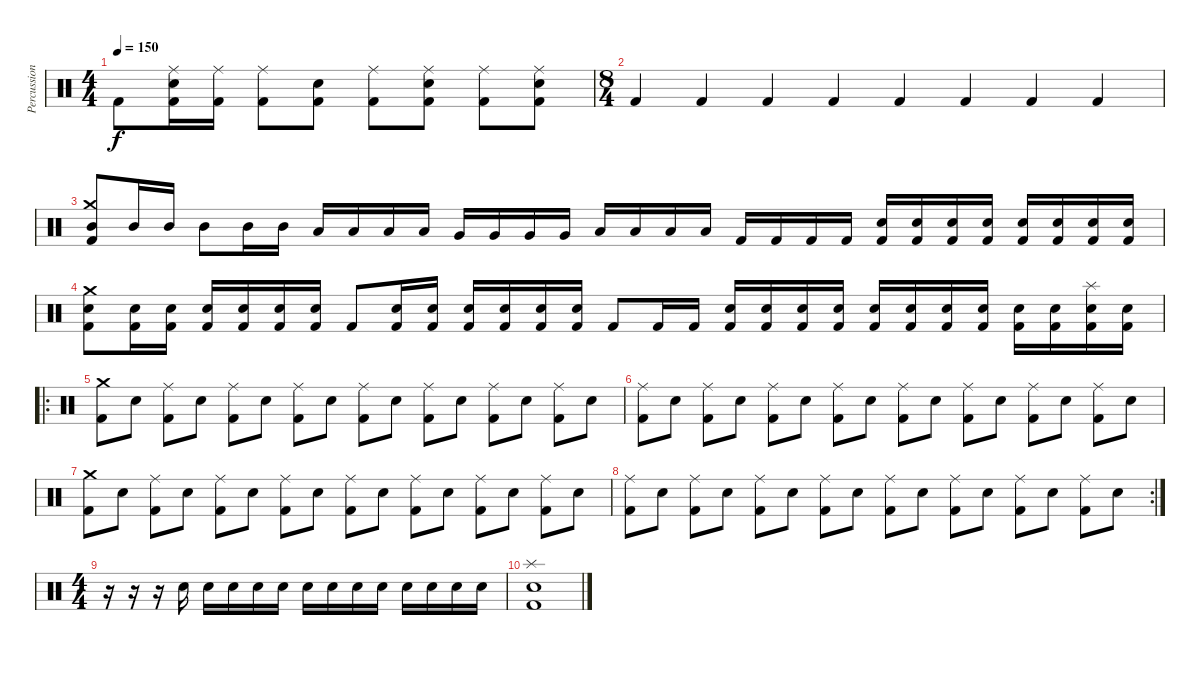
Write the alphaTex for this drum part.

\track ("Percussions" "Percussion") {instrument percussion}
\staff {score}
\articulation defaults
\ts (4 4)
\tempo 150
\clef neutral
\ks c "Kick (hit) 2".8{dy f}
("Ride (middle)" "Snare (hit) 2" "Kick (hit) 2").16 ("Ride (middle)" "Kick (hit) 2").16 ("Ride (middle)" "Kick (hit) 2").8 ("Snare (hit) 2" "Kick (hit) 2").8 ("Ride (middle)" "Kick (hit) 2").8 ("Ride (middle)" "Snare (hit) 2" "Kick (hit) 2").8 ("Ride (middle)" "Kick (hit) 2").8 ("Ride (middle)" "Snare (hit) 2" "Kick (hit) 2").8 |
\ts (8 4)
"Kick (hit) 2".4 "Kick (hit) 2".4 "Kick (hit) 2".4 "Kick (hit) 2".4 "Kick (hit) 2".4 "Kick (hit) 2".4 "Kick (hit) 2".4 "Kick (hit) 2".4 |
("Crash medium (hit)" "Mid Tom (hit)" "Kick (hit) 2").8 "Mid Tom (hit)".16 "Mid Tom (hit)".16 "Mid Tom (hit)".8 "Mid Tom (hit)".16 "Mid Tom (hit)".16 "Low Tom (hit)".16 "Low Tom (hit)".16 "Low Tom (hit)".16 "Low Tom (hit)".16 "Very Low Tom (hit)".16 "Very Low Tom (hit)".16 "Very Low Tom (hit)".16 "Very Low Tom (hit)".16 "Low Floor Tom (hit)".16 "Low Floor Tom (hit)".16 "Low Floor Tom (hit)".16 "Low Floor Tom (hit)".16 "Kick (hit) 2".16 "Kick (hit) 2".16 "Kick (hit) 2".16 "Kick (hit) 2".16 ("Snare (hit) 2" "Kick (hit) 2").16 ("Snare (hit) 2" "Kick (hit) 2").16 ("Snare (hit) 2" "Kick (hit) 2").16 ("Snare (hit) 2" "Kick (hit) 2").16 ("Snare (hit) 2" "Kick (hit) 2").16 ("Snare (hit) 2" "Kick (hit) 2").16 ("Snare (hit) 2" "Kick (hit) 2").16 ("Snare (hit) 2" "Kick (hit) 2").16 |
("Crash medium (hit)" "Snare (hit) 2" "Kick (hit) 2").8 ("Snare (hit) 2" "Kick (hit) 2").16 ("Snare (hit) 2" "Kick (hit) 2").16 ("Snare (hit) 2" "Kick (hit) 2").16 ("Snare (hit) 2" "Kick (hit) 2").16 ("Snare (hit) 2" "Kick (hit) 2").16 ("Snare (hit) 2" "Kick (hit) 2").16 "Kick (hit) 2".8 ("Snare (hit) 2" "Kick (hit) 2").16 ("Snare (hit) 2" "Kick (hit) 2").16 ("Snare (hit) 2" "Kick (hit) 2").16 ("Snare (hit) 2" "Kick (hit) 2").16 ("Snare (hit) 2" "Kick (hit) 2").16 ("Snare (hit) 2" "Kick (hit) 2").16 "Kick (hit) 2".8 "Kick (hit) 2".16 "Kick (hit) 2".16 ("Snare (hit) 2" "Kick (hit) 2").16 ("Snare (hit) 2" "Kick (hit) 2").16 ("Snare (hit) 2" "Kick (hit) 2").16 ("Snare (hit) 2" "Kick (hit) 2").16 ("Snare (hit) 2" "Kick (hit) 2").16 ("Snare (hit) 2" "Kick (hit) 2").16 ("Snare (hit) 2" "Kick (hit) 2").16 ("Snare (hit) 2" "Kick (hit) 2").16 ("Snare (hit) 2" "Kick (hit) 2").16 ("Snare (hit) 2" "Kick (hit) 2").16 ("Splash (hit)" "Snare (hit) 2" "Kick (hit) 2").16 ("Snare (hit) 2" "Kick (hit) 2").16 |
\ro
("Crash medium (hit)" "Kick (hit) 2").8 "Snare (hit) 2".8 ("Ride (middle)" "Kick (hit) 2").8 "Snare (hit) 2".8 ("Ride (middle)" "Kick (hit) 2").8 "Snare (hit) 2".8 ("Ride (middle)" "Kick (hit) 2").8 "Snare (hit) 2".8 ("Ride (middle)" "Kick (hit) 2").8 "Snare (hit) 2".8 ("Ride (middle)" "Kick (hit) 2").8 "Snare (hit) 2".8 ("Ride (middle)" "Kick (hit) 2").8 "Snare (hit) 2".8 ("Ride (middle)" "Kick (hit) 2").8 "Snare (hit) 2".8 |
("Ride (middle)" "Kick (hit) 2").8 "Snare (hit) 2".8 ("Ride (middle)" "Kick (hit) 2").8 "Snare (hit) 2".8 ("Ride (middle)" "Kick (hit) 2").8 "Snare (hit) 2".8 ("Ride (middle)" "Kick (hit) 2").8 "Snare (hit) 2".8 ("Ride (middle)" "Kick (hit) 2").8 "Snare (hit) 2".8 ("Ride (middle)" "Kick (hit) 2").8 "Snare (hit) 2".8 ("Ride (middle)" "Kick (hit) 2").8 "Snare (hit) 2".8 ("Ride (middle)" "Kick (hit) 2").8 "Snare (hit) 2".8 |
("Crash medium (hit)" "Kick (hit) 2").8 "Snare (hit) 2".8 ("Ride (middle)" "Kick (hit) 2").8 "Snare (hit) 2".8 ("Ride (middle)" "Kick (hit) 2").8 "Snare (hit) 2".8 ("Ride (middle)" "Kick (hit) 2").8 "Snare (hit) 2".8 ("Ride (middle)" "Kick (hit) 2").8 "Snare (hit) 2".8 ("Ride (middle)" "Kick (hit) 2").8 "Snare (hit) 2".8 ("Ride (middle)" "Kick (hit) 2").8 "Snare (hit) 2".8 ("Ride (middle)" "Kick (hit) 2").8 "Snare (hit) 2".8 |
\rc 2
("Ride (middle)" "Kick (hit) 2").8 "Snare (hit) 2".8 ("Ride (middle)" "Kick (hit) 2").8 "Snare (hit) 2".8 ("Ride (middle)" "Kick (hit) 2").8 "Snare (hit) 2".8 ("Ride (middle)" "Kick (hit) 2").8 "Snare (hit) 2".8 ("Ride (middle)" "Kick (hit) 2").8 "Snare (hit) 2".8 ("Ride (middle)" "Kick (hit) 2").8 "Snare (hit) 2".8 ("Ride (middle)" "Kick (hit) 2").8 "Snare (hit) 2".8 ("Ride (middle)" "Kick (hit) 2").8 "Snare (hit) 2".8 |
\ts (4 4)
r.16 r.16 r.16 "Snare (hit) 2".16 "Snare (hit) 2".16 "Snare (hit) 2".16 "Snare (hit) 2".16 "Snare (hit) 2".16 "Snare (hit) 2".16 "Snare (hit) 2".16 "Snare (hit) 2".16 "Snare (hit) 2".16 "Snare (hit) 2".16 "Snare (hit) 2".16 "Snare (hit) 2".16 "Snare (hit) 2".16 |
("Splash (hit)" "Snare (hit) 2" "Kick (hit) 2").1
